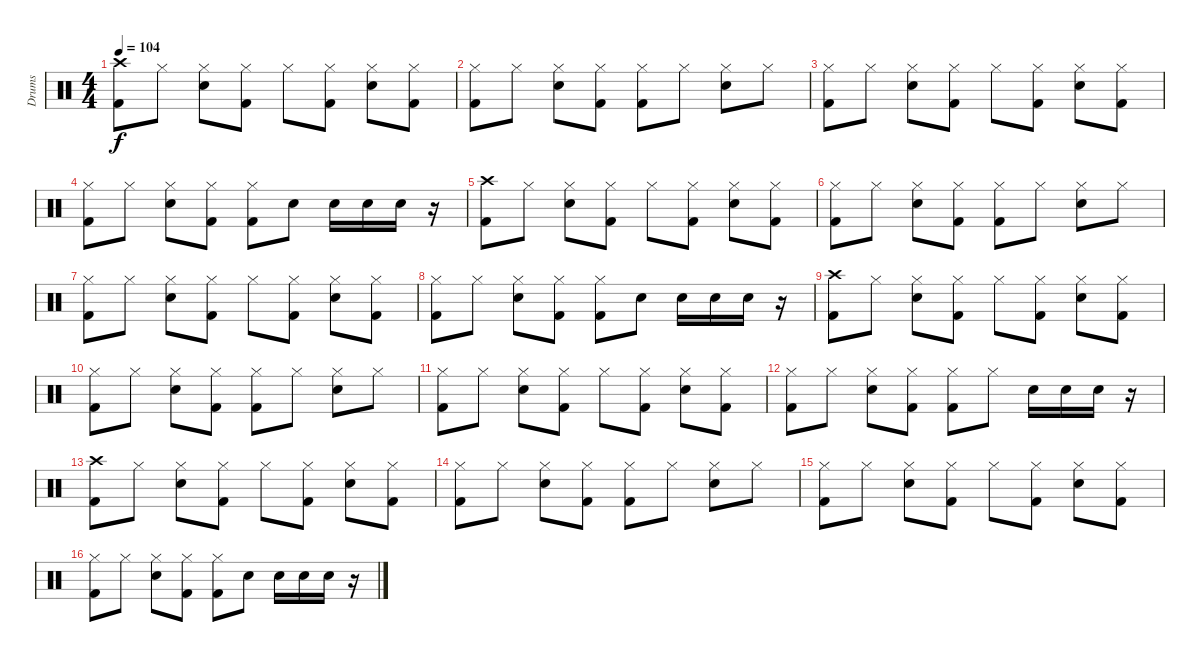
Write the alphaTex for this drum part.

\track ("Drums" "Drums") {instrument percussion}
\staff {score}
\articulation defaults
\ts (4 4)
\tempo 104
\clef neutral
\ks c
("Crash high (hit)" "Kick (hit) 2").8{dy f} "Hi-Hat (closed)".8 ("Hi-Hat (closed)" "Snare (hit) 2").8 ("Hi-Hat (closed)" "Kick (hit) 2").8 "Hi-Hat (closed)".8 ("Hi-Hat (closed)" "Kick (hit) 2").8 ("Hi-Hat (closed)" "Snare (hit) 2").8 ("Hi-Hat (closed)" "Kick (hit) 2").8 |
("Hi-Hat (closed)" "Kick (hit) 2").8 "Hi-Hat (closed)".8 ("Hi-Hat (closed)" "Snare (hit) 2").8 ("Hi-Hat (closed)" "Kick (hit) 2").8 ("Hi-Hat (closed)" "Kick (hit) 2").8 "Hi-Hat (closed)".8 ("Hi-Hat (closed)" "Snare (hit) 2").8 "Hi-Hat (closed)".8 |
("Hi-Hat (closed)" "Kick (hit) 2").8 "Hi-Hat (closed)".8 ("Hi-Hat (closed)" "Snare (hit) 2").8 ("Hi-Hat (closed)" "Kick (hit) 2").8 "Hi-Hat (closed)".8 ("Hi-Hat (closed)" "Kick (hit) 2").8 ("Hi-Hat (closed)" "Snare (hit) 2").8 ("Hi-Hat (closed)" "Kick (hit) 2").8 |
("Hi-Hat (closed)" "Kick (hit) 2").8 "Hi-Hat (closed)".8 ("Hi-Hat (closed)" "Snare (hit) 2").8 ("Hi-Hat (closed)" "Kick (hit) 2").8 ("Hi-Hat (closed)" "Kick (hit) 2").8 "Snare (hit) 2".8 "Snare (hit) 2".16 "Snare (hit) 2".16 "Snare (hit) 2".16 r.16 |
("Crash high (hit)" "Kick (hit) 2").8 "Hi-Hat (closed)".8 ("Hi-Hat (closed)" "Snare (hit) 2").8 ("Hi-Hat (closed)" "Kick (hit) 2").8 "Hi-Hat (closed)".8 ("Hi-Hat (closed)" "Kick (hit) 2").8 ("Hi-Hat (closed)" "Snare (hit) 2").8 ("Hi-Hat (closed)" "Kick (hit) 2").8 |
("Hi-Hat (closed)" "Kick (hit) 2").8 "Hi-Hat (closed)".8 ("Hi-Hat (closed)" "Snare (hit) 2").8 ("Hi-Hat (closed)" "Kick (hit) 2").8 ("Hi-Hat (closed)" "Kick (hit) 2").8 "Hi-Hat (closed)".8 ("Hi-Hat (closed)" "Snare (hit) 2").8 "Hi-Hat (closed)".8 |
("Hi-Hat (closed)" "Kick (hit) 2").8 "Hi-Hat (closed)".8 ("Hi-Hat (closed)" "Snare (hit) 2").8 ("Hi-Hat (closed)" "Kick (hit) 2").8 "Hi-Hat (closed)".8 ("Hi-Hat (closed)" "Kick (hit) 2").8 ("Hi-Hat (closed)" "Snare (hit) 2").8 ("Hi-Hat (closed)" "Kick (hit) 2").8 |
("Hi-Hat (closed)" "Kick (hit) 2").8 "Hi-Hat (closed)".8 ("Hi-Hat (closed)" "Snare (hit) 2").8 ("Hi-Hat (closed)" "Kick (hit) 2").8 ("Hi-Hat (closed)" "Kick (hit) 2").8 "Snare (hit) 2".8 "Snare (hit) 2".16 "Snare (hit) 2".16 "Snare (hit) 2".16 r.16 |
("Crash high (hit)" "Kick (hit) 2").8 "Hi-Hat (closed)".8 ("Hi-Hat (closed)" "Snare (hit) 2").8 ("Hi-Hat (closed)" "Kick (hit) 2").8 "Hi-Hat (closed)".8 ("Hi-Hat (closed)" "Kick (hit) 2").8 ("Hi-Hat (closed)" "Snare (hit) 2").8 ("Hi-Hat (closed)" "Kick (hit) 2").8 |
("Hi-Hat (closed)" "Kick (hit) 2").8 "Hi-Hat (closed)".8 ("Hi-Hat (closed)" "Snare (hit) 2").8 ("Hi-Hat (closed)" "Kick (hit) 2").8 ("Hi-Hat (closed)" "Kick (hit) 2").8 "Hi-Hat (closed)".8 ("Hi-Hat (closed)" "Snare (hit) 2").8 "Hi-Hat (closed)".8 |
("Hi-Hat (closed)" "Kick (hit) 2").8 "Hi-Hat (closed)".8 ("Hi-Hat (closed)" "Snare (hit) 2").8 ("Hi-Hat (closed)" "Kick (hit) 2").8 "Hi-Hat (closed)".8 ("Hi-Hat (closed)" "Kick (hit) 2").8 ("Hi-Hat (closed)" "Snare (hit) 2").8 ("Hi-Hat (closed)" "Kick (hit) 2").8 |
("Hi-Hat (closed)" "Kick (hit) 2").8 "Hi-Hat (closed)".8 ("Hi-Hat (closed)" "Snare (hit) 2").8 ("Hi-Hat (closed)" "Kick (hit) 2").8 ("Hi-Hat (closed)" "Kick (hit) 2").8 "Hi-Hat (closed)".8 "Snare (hit) 2".16 "Snare (hit) 2".16 "Snare (hit) 2".16 r.16 |
("Crash high (hit)" "Kick (hit) 2").8 "Hi-Hat (closed)".8 ("Hi-Hat (closed)" "Snare (hit) 2").8 ("Hi-Hat (closed)" "Kick (hit) 2").8 "Hi-Hat (closed)".8 ("Hi-Hat (closed)" "Kick (hit) 2").8 ("Hi-Hat (closed)" "Snare (hit) 2").8 ("Hi-Hat (closed)" "Kick (hit) 2").8 |
("Hi-Hat (closed)" "Kick (hit) 2").8 "Hi-Hat (closed)".8 ("Hi-Hat (closed)" "Snare (hit) 2").8 ("Hi-Hat (closed)" "Kick (hit) 2").8 ("Hi-Hat (closed)" "Kick (hit) 2").8 "Hi-Hat (closed)".8 ("Hi-Hat (closed)" "Snare (hit) 2").8 "Hi-Hat (closed)".8 |
("Hi-Hat (closed)" "Kick (hit) 2").8 "Hi-Hat (closed)".8 ("Hi-Hat (closed)" "Snare (hit) 2").8 ("Hi-Hat (closed)" "Kick (hit) 2").8 "Hi-Hat (closed)".8 ("Hi-Hat (closed)" "Kick (hit) 2").8 ("Hi-Hat (closed)" "Snare (hit) 2").8 ("Hi-Hat (closed)" "Kick (hit) 2").8 |
("Hi-Hat (closed)" "Kick (hit) 2").8 "Hi-Hat (closed)".8 ("Hi-Hat (closed)" "Snare (hit) 2").8 ("Hi-Hat (closed)" "Kick (hit) 2").8 ("Hi-Hat (closed)" "Kick (hit) 2").8 "Snare (hit) 2".8 "Snare (hit) 2".16 "Snare (hit) 2".16 "Snare (hit) 2".16 r.16
